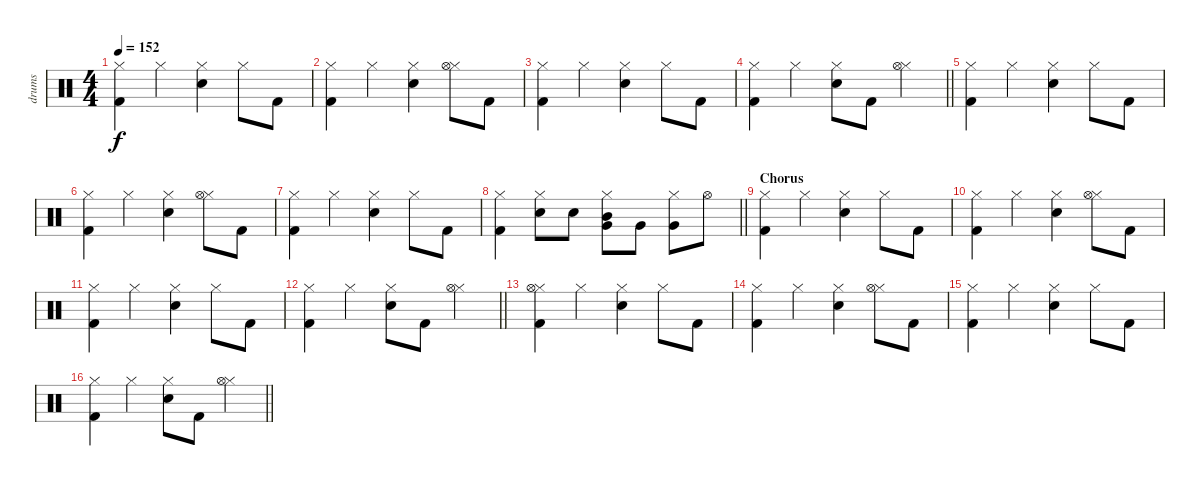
\track ("drums" "drums") {instrument percussion}
\staff {score}
\articulation defaults
\ts (4 4)
\tempo 152
\clef neutral
\ks c
("Hi-Hat (closed)" "Kick (hit) 2").4{dy f} "Hi-Hat (closed)".4 ("Hi-Hat (closed)" "Electric Snare (hit)").4 "Hi-Hat (closed)".8 "Kick (hit) 2".8 |
("Hi-Hat (closed)" "Kick (hit) 2").4 "Hi-Hat (closed)".4 ("Hi-Hat (closed)" "Electric Snare (hit)").4 ("Hi-Hat (closed)" "Hi-Hat (open)").8 "Kick (hit) 2".8 |
("Hi-Hat (closed)" "Kick (hit) 2").4 "Hi-Hat (closed)".4 ("Hi-Hat (closed)" "Electric Snare (hit)").4 "Hi-Hat (closed)".8 "Kick (hit) 2".8 |
\barLineRight lightlight
("Hi-Hat (closed)" "Kick (hit) 2").4 "Hi-Hat (closed)".4 ("Hi-Hat (closed)" "Electric Snare (hit)").8 "Kick (hit) 2".8 ("Hi-Hat (closed)" "Hi-Hat (open)").4 |
("Hi-Hat (closed)" "Kick (hit) 2").4 "Hi-Hat (closed)".4 ("Hi-Hat (closed)" "Electric Snare (hit)").4 "Hi-Hat (closed)".8 "Kick (hit) 2".8 |
("Hi-Hat (closed)" "Kick (hit) 2").4 "Hi-Hat (closed)".4 ("Hi-Hat (closed)" "Electric Snare (hit)").4 ("Hi-Hat (closed)" "Hi-Hat (open)").8 "Kick (hit) 2".8 |
("Hi-Hat (closed)" "Kick (hit) 2").4 "Hi-Hat (closed)".4 ("Hi-Hat (closed)" "Electric Snare (hit)").4 "Hi-Hat (closed)".8 "Kick (hit) 2".8 |
\barLineRight lightlight
("Hi-Hat (closed)" "Kick (hit) 2").4 ("Hi-Hat (closed)" "Electric Snare (hit)").8 "Electric Snare (hit)".8 ("Hi-Hat (closed)" "Very Low Tom (hit)" "Mid Tom (hit)").8 "Very Low Tom (hit)".8 ("Hi-Hat (closed)" "Very Low Tom (hit)").8 "Hi-Hat (open)".8 |
\section ("" "Chorus")
("Hi-Hat (closed)" "Kick (hit) 2").4 "Hi-Hat (closed)".4 ("Hi-Hat (closed)" "Electric Snare (hit)").4 "Hi-Hat (closed)".8 "Kick (hit) 2".8 |
("Hi-Hat (closed)" "Kick (hit) 2").4 "Hi-Hat (closed)".4 ("Hi-Hat (closed)" "Electric Snare (hit)").4 ("Hi-Hat (closed)" "Hi-Hat (open)").8 "Kick (hit) 2".8 |
("Hi-Hat (closed)" "Kick (hit) 2").4 "Hi-Hat (closed)".4 ("Hi-Hat (closed)" "Electric Snare (hit)").4 "Hi-Hat (closed)".8 "Kick (hit) 2".8 |
\barLineRight lightlight
("Hi-Hat (closed)" "Kick (hit) 2").4 "Hi-Hat (closed)".4 ("Hi-Hat (closed)" "Electric Snare (hit)").8 "Kick (hit) 2".8 ("Hi-Hat (closed)" "Hi-Hat (open)").4 |
("Hi-Hat (closed)" "Hi-Hat (open)" "Kick (hit) 2").4 "Hi-Hat (closed)".4 ("Hi-Hat (closed)" "Electric Snare (hit)").4 "Hi-Hat (closed)".8 "Kick (hit) 2".8 |
("Hi-Hat (closed)" "Kick (hit) 2").4 "Hi-Hat (closed)".4 ("Hi-Hat (closed)" "Electric Snare (hit)").4 ("Hi-Hat (closed)" "Hi-Hat (open)").8 "Kick (hit) 2".8 |
("Hi-Hat (closed)" "Kick (hit) 2").4 "Hi-Hat (closed)".4 ("Hi-Hat (closed)" "Electric Snare (hit)").4 "Hi-Hat (closed)".8 "Kick (hit) 2".8 |
\barLineRight lightlight
("Hi-Hat (closed)" "Kick (hit) 2").4 "Hi-Hat (closed)".4 ("Hi-Hat (closed)" "Electric Snare (hit)").8 "Kick (hit) 2".8 ("Hi-Hat (closed)" "Hi-Hat (open)").4
